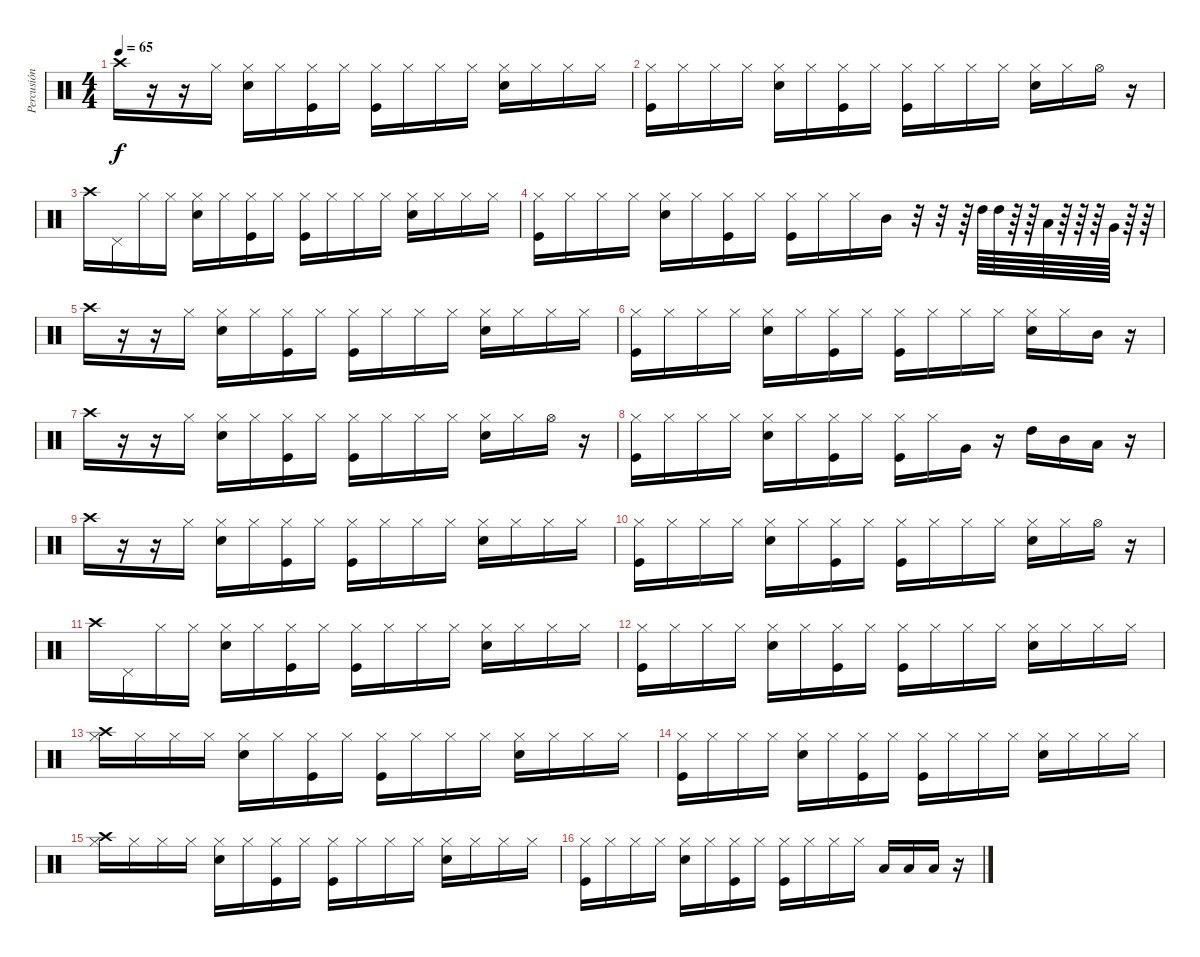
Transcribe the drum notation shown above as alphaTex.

\track ("Percusión" "Percusión") {instrument percussion}
\staff {score}
\articulation defaults
\ts (4 4)
\tempo 65
\clef neutral
\ks c "Crash high (hit)".16{dy f}
r.16 r.16 "Hi-Hat (closed)".16 ("Hi-Hat (closed)" "Snare (hit) 2").16 "Hi-Hat (closed)".16 ("Hi-Hat (closed)" "Kick (hit)").16 "Hi-Hat (closed)".16 ("Hi-Hat (closed)" "Kick (hit)").16 "Hi-Hat (closed)".16 "Hi-Hat (closed)".16 "Hi-Hat (closed)".16 ("Hi-Hat (closed)" "Snare (hit) 2").16 "Hi-Hat (closed)".16 "Hi-Hat (closed)".16 "Hi-Hat (closed)".16 |
("Hi-Hat (closed)" "Kick (hit)").16 "Hi-Hat (closed)".16 "Hi-Hat (closed)".16 "Hi-Hat (closed)".16 ("Hi-Hat (closed)" "Snare (hit) 2").16 "Hi-Hat (closed)".16 ("Hi-Hat (closed)" "Kick (hit)").16 "Hi-Hat (closed)".16 ("Hi-Hat (closed)" "Kick (hit)").16 "Hi-Hat (closed)".16 "Hi-Hat (closed)".16 "Hi-Hat (closed)".16 ("Hi-Hat (closed)" "Snare (hit) 2").16 "Hi-Hat (closed)".16 "Hi-Hat (open)".16 r.16 |
"Crash high (hit)".16 "Pedal Hi-Hat (hit)".16 "Hi-Hat (closed)".16 "Hi-Hat (closed)".16 ("Hi-Hat (closed)" "Snare (hit) 2").16 "Hi-Hat (closed)".16 ("Hi-Hat (closed)" "Kick (hit)").16 "Hi-Hat (closed)".16 ("Hi-Hat (closed)" "Kick (hit)").16 "Hi-Hat (closed)".16 "Hi-Hat (closed)".16 "Hi-Hat (closed)".16 ("Hi-Hat (closed)" "Snare (hit) 2").16 "Hi-Hat (closed)".16 "Hi-Hat (closed)".16 "Hi-Hat (closed)".16 |
("Hi-Hat (closed)" "Kick (hit)").16 "Hi-Hat (closed)".16 "Hi-Hat (closed)".16 "Hi-Hat (closed)".16 ("Hi-Hat (closed)" "Snare (hit) 2").16 "Hi-Hat (closed)".16 ("Hi-Hat (closed)" "Kick (hit)").16 "Hi-Hat (closed)".16 ("Hi-Hat (closed)" "Kick (hit)").16 "Hi-Hat (closed)".16 "Hi-Hat (closed)".16 "Mid Tom (hit)".16 r.32 r.32 r.64 "High Tom (hit)".64 "High Tom (hit)".64 r.64 r.64 "Low Tom (hit)".64 r.64 r.64 r.64 "Very Low Tom (hit)".64 r.64 r.64 |
"Crash high (hit)".16 r.16 r.16 "Hi-Hat (closed)".16 ("Hi-Hat (closed)" "Snare (hit) 2").16 "Hi-Hat (closed)".16 ("Hi-Hat (closed)" "Kick (hit)").16 "Hi-Hat (closed)".16 ("Hi-Hat (closed)" "Kick (hit)").16 "Hi-Hat (closed)".16 "Hi-Hat (closed)".16 "Hi-Hat (closed)".16 ("Hi-Hat (closed)" "Snare (hit) 2").16 "Hi-Hat (closed)".16 "Hi-Hat (closed)".16 "Hi-Hat (closed)".16 |
("Hi-Hat (closed)" "Kick (hit)").16 "Hi-Hat (closed)".16 "Hi-Hat (closed)".16 "Hi-Hat (closed)".16 ("Hi-Hat (closed)" "Snare (hit) 2").16 "Hi-Hat (closed)".16 ("Hi-Hat (closed)" "Kick (hit)").16 "Hi-Hat (closed)".16 ("Hi-Hat (closed)" "Kick (hit)").16 "Hi-Hat (closed)".16 "Hi-Hat (closed)".16 "Hi-Hat (closed)".16 ("Hi-Hat (closed)" "Snare (hit) 2").16 "Hi-Hat (closed)".16 "Mid Tom (hit)".16 r.16 |
"Crash high (hit)".16 r.16 r.16 "Hi-Hat (closed)".16 ("Hi-Hat (closed)" "Snare (hit) 2").16 "Hi-Hat (closed)".16 ("Hi-Hat (closed)" "Kick (hit)").16 "Hi-Hat (closed)".16 ("Hi-Hat (closed)" "Kick (hit)").16 "Hi-Hat (closed)".16 "Hi-Hat (closed)".16 "Hi-Hat (closed)".16 ("Hi-Hat (closed)" "Snare (hit) 2").16 "Hi-Hat (closed)".16 "Hi-Hat (open)".16 r.16 |
("Hi-Hat (closed)" "Kick (hit)").16 "Hi-Hat (closed)".16 "Hi-Hat (closed)".16 "Hi-Hat (closed)".16 ("Hi-Hat (closed)" "Snare (hit) 2").16 "Hi-Hat (closed)".16 ("Hi-Hat (closed)" "Kick (hit)").16 "Hi-Hat (closed)".16 ("Hi-Hat (closed)" "Kick (hit)").16 "Hi-Hat (closed)".16 "Very Low Tom (hit)".16 r.16 "High Tom (hit)".16 "Mid Tom (hit)".16 "Low Tom (hit)".16 r.16 |
"Crash high (hit)".16 r.16 r.16 "Hi-Hat (closed)".16 ("Hi-Hat (closed)" "Snare (hit) 2").16 "Hi-Hat (closed)".16 ("Hi-Hat (closed)" "Kick (hit)").16 "Hi-Hat (closed)".16 ("Hi-Hat (closed)" "Kick (hit)").16 "Hi-Hat (closed)".16 "Hi-Hat (closed)".16 "Hi-Hat (closed)".16 ("Hi-Hat (closed)" "Snare (hit) 2").16 "Hi-Hat (closed)".16 "Hi-Hat (closed)".16 "Hi-Hat (closed)".16 |
("Hi-Hat (closed)" "Kick (hit)").16 "Hi-Hat (closed)".16 "Hi-Hat (closed)".16 "Hi-Hat (closed)".16 ("Hi-Hat (closed)" "Snare (hit) 2").16 "Hi-Hat (closed)".16 ("Hi-Hat (closed)" "Kick (hit)").16 "Hi-Hat (closed)".16 ("Hi-Hat (closed)" "Kick (hit)").16 "Hi-Hat (closed)".16 "Hi-Hat (closed)".16 "Hi-Hat (closed)".16 ("Hi-Hat (closed)" "Snare (hit) 2").16 "Hi-Hat (closed)".16 "Hi-Hat (open)".16 r.16 |
"Crash high (hit)".16 "Pedal Hi-Hat (hit)".16 "Hi-Hat (closed)".16 "Hi-Hat (closed)".16 ("Hi-Hat (closed)" "Snare (hit) 2").16 "Hi-Hat (closed)".16 ("Hi-Hat (closed)" "Kick (hit)").16 "Hi-Hat (closed)".16 ("Hi-Hat (closed)" "Kick (hit)").16 "Hi-Hat (closed)".16 "Hi-Hat (closed)".16 "Hi-Hat (closed)".16 ("Hi-Hat (closed)" "Snare (hit) 2").16 "Hi-Hat (closed)".16 "Hi-Hat (closed)".16 "Hi-Hat (closed)".16 |
("Hi-Hat (closed)" "Kick (hit)").16 "Hi-Hat (closed)".16 "Hi-Hat (closed)".16 "Hi-Hat (closed)".16 ("Hi-Hat (closed)" "Snare (hit) 2").16 "Hi-Hat (closed)".16 ("Hi-Hat (closed)" "Kick (hit)").16 "Hi-Hat (closed)".16 ("Hi-Hat (closed)" "Kick (hit)").16 "Hi-Hat (closed)".16 "Hi-Hat (closed)".16 "Hi-Hat (closed)".16 ("Hi-Hat (closed)" "Snare (hit) 2").16 "Hi-Hat (closed)".16 "Hi-Hat (closed)".16 "Hi-Hat (closed)".16 |
("Hi-Hat (closed)" "Crash high (hit)").16 "Hi-Hat (closed)".16 "Hi-Hat (closed)".16 "Hi-Hat (closed)".16 ("Hi-Hat (closed)" "Snare (hit) 2").16 "Hi-Hat (closed)".16 ("Hi-Hat (closed)" "Kick (hit)").16 "Hi-Hat (closed)".16 ("Hi-Hat (closed)" "Kick (hit)").16 "Hi-Hat (closed)".16 "Hi-Hat (closed)".16 "Hi-Hat (closed)".16 ("Hi-Hat (closed)" "Snare (hit) 2").16 "Hi-Hat (closed)".16 "Hi-Hat (closed)".16 "Hi-Hat (closed)".16 |
("Hi-Hat (closed)" "Kick (hit)").16 "Hi-Hat (closed)".16 "Hi-Hat (closed)".16 "Hi-Hat (closed)".16 ("Hi-Hat (closed)" "Snare (hit) 2").16 "Hi-Hat (closed)".16 ("Hi-Hat (closed)" "Kick (hit)").16 "Hi-Hat (closed)".16 ("Hi-Hat (closed)" "Kick (hit)").16 "Hi-Hat (closed)".16 "Hi-Hat (closed)".16 "Hi-Hat (closed)".16 ("Hi-Hat (closed)" "Snare (hit) 2").16 "Hi-Hat (closed)".16 "Hi-Hat (closed)".16 "Hi-Hat (closed)".16 |
("Hi-Hat (closed)" "Crash high (hit)").16 "Hi-Hat (closed)".16 "Hi-Hat (closed)".16 "Hi-Hat (closed)".16 ("Hi-Hat (closed)" "Snare (hit) 2").16 "Hi-Hat (closed)".16 ("Hi-Hat (closed)" "Kick (hit)").16 "Hi-Hat (closed)".16 ("Hi-Hat (closed)" "Kick (hit)").16 "Hi-Hat (closed)".16 "Hi-Hat (closed)".16 "Hi-Hat (closed)".16 ("Hi-Hat (closed)" "Snare (hit) 2").16 "Hi-Hat (closed)".16 "Hi-Hat (closed)".16 "Hi-Hat (closed)".16 |
("Hi-Hat (closed)" "Kick (hit)").16 "Hi-Hat (closed)".16 "Hi-Hat (closed)".16 "Hi-Hat (closed)".16 ("Hi-Hat (closed)" "Snare (hit) 2").16 "Hi-Hat (closed)".16 ("Hi-Hat (closed)" "Kick (hit)").16 "Hi-Hat (closed)".16 ("Hi-Hat (closed)" "Kick (hit)").16 "Hi-Hat (closed)".16 "Hi-Hat (closed)".16 "Hi-Hat (closed)".16 "Low Tom (hit)".16 "Low Tom (hit)".16 "Low Floor Tom (hit)".16 r.16
